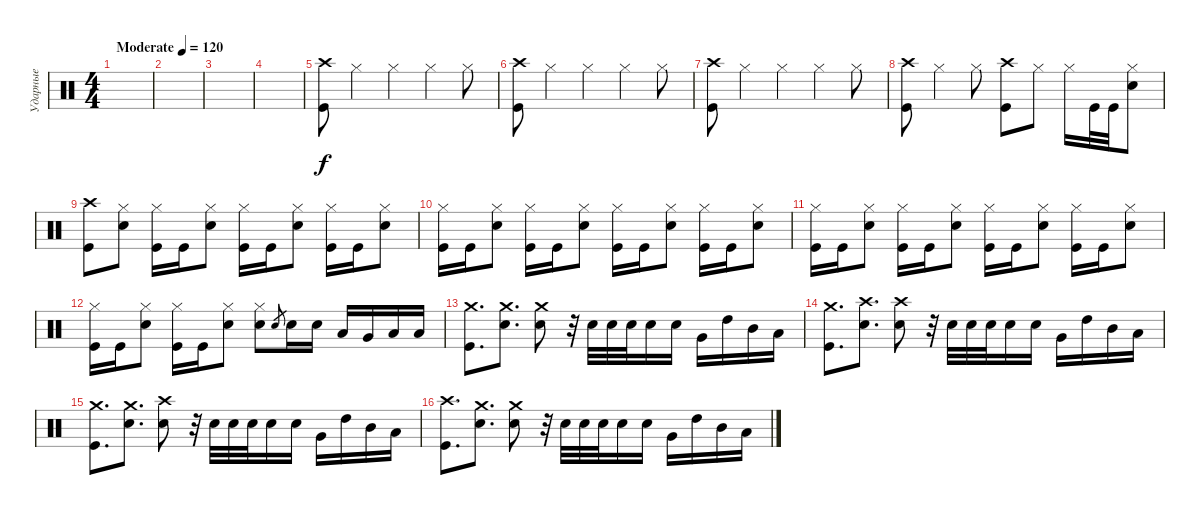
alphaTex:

\track ("Ударные" "Ударные") {instrument percussion}
\staff {score}
\articulation defaults
\ts (4 4)
\tempo (120 "Moderate")
\clef neutral
\ks c
|
|
|
|
("Crash high (hit)" "Kick (hit)").8 "Hi-Hat (closed)".4 "Hi-Hat (closed)".4 "Hi-Hat (closed)".4 "Hi-Hat (closed)".8 |
("Crash high (hit)" "Kick (hit)").8 "Hi-Hat (closed)".4 "Hi-Hat (closed)".4 "Hi-Hat (closed)".4 "Hi-Hat (closed)".8 |
("Crash high (hit)" "Kick (hit)").8 "Hi-Hat (closed)".4 "Hi-Hat (closed)".4 "Hi-Hat (closed)".4 "Hi-Hat (closed)".8 |
("Crash high (hit)" "Kick (hit)").8 "Hi-Hat (closed)".4 "Hi-Hat (closed)".8 ("Crash high (hit)" "Kick (hit)").8 "Hi-Hat (closed)".8 "Hi-Hat (closed)".16 "Kick (hit)".32 "Kick (hit)".32 ("Hi-Hat (closed)" "Snare (hit) 2").8 |
("Crash high (hit)" "Kick (hit)").8 ("Hi-Hat (closed)" "Snare (hit) 2").8 ("Hi-Hat (closed)" "Kick (hit)").16 "Kick (hit)".16 ("Hi-Hat (closed)" "Snare (hit) 2").8 ("Hi-Hat (closed)" "Kick (hit)").16 "Kick (hit)".16 ("Hi-Hat (closed)" "Snare (hit) 2").8 ("Hi-Hat (closed)" "Kick (hit)").16 "Kick (hit)".16 ("Hi-Hat (closed)" "Snare (hit) 2").8 |
("Hi-Hat (closed)" "Kick (hit)").16 "Kick (hit)".16 ("Hi-Hat (closed)" "Snare (hit) 2").8 ("Hi-Hat (closed)" "Kick (hit)").16 "Kick (hit)".16 ("Hi-Hat (closed)" "Snare (hit) 2").8 ("Hi-Hat (closed)" "Kick (hit)").16 "Kick (hit)".16 ("Hi-Hat (closed)" "Snare (hit) 2").8 ("Hi-Hat (closed)" "Kick (hit)").16 "Kick (hit)".16 ("Hi-Hat (closed)" "Snare (hit) 2").8 |
("Hi-Hat (closed)" "Kick (hit)").16 "Kick (hit)".16 ("Hi-Hat (closed)" "Snare (hit) 2").8 ("Hi-Hat (closed)" "Kick (hit)").16 "Kick (hit)".16 ("Hi-Hat (closed)" "Snare (hit) 2").8 ("Hi-Hat (closed)" "Kick (hit)").16 "Kick (hit)".16 ("Hi-Hat (closed)" "Snare (hit) 2").8 ("Hi-Hat (closed)" "Kick (hit)").16 "Kick (hit)".16 ("Hi-Hat (closed)" "Snare (hit) 2").8 |
("Hi-Hat (closed)" "Kick (hit)").16 "Kick (hit)".16 ("Hi-Hat (closed)" "Snare (hit) 2").8 ("Hi-Hat (closed)" "Kick (hit)").16 "Kick (hit)".16 ("Hi-Hat (closed)" "Snare (hit) 2").8 ("Hi-Hat (closed)" "Snare (hit) 2").8 "Snare (hit) 2".8{gr} "Snare (hit) 2".16 "Snare (hit) 2".16 "Low Tom (hit)".16 "Very Low Tom (hit)".16 "Low Tom (hit)".16 "Low Tom (hit)".16 |
("Crash medium (hit)" "Kick (hit)").8{d} ("Crash medium (hit)" "Snare (hit) 2").8{d} ("Crash medium (hit)" "Snare (hit) 2").8 r.32 "Snare (hit) 2".32 "Snare (hit) 2".32 "Snare (hit) 2".32 "Snare (hit) 2".16 "Snare (hit) 2".16 "Very Low Tom (hit)".16 "High Tom (hit)".16 "Mid Tom (hit)".16 "Low Tom (hit)".16 |
("Crash medium (hit)" "Kick (hit)").8{d} ("Crash high (hit)" "Snare (hit) 2").8{d} ("Crash high (hit)" "Snare (hit) 2").8 r.32 "Snare (hit) 2".32 "Snare (hit) 2".32 "Snare (hit) 2".32 "Snare (hit) 2".16 "Snare (hit) 2".16 "Very Low Tom (hit)".16 "High Tom (hit)".16 "Mid Tom (hit)".16 "Low Tom (hit)".16 |
("Crash medium (hit)" "Kick (hit)").8{d} ("Crash medium (hit)" "Snare (hit) 2").8{d} ("Crash high (hit)" "Snare (hit) 2").8 r.32 "Snare (hit) 2".32 "Snare (hit) 2".32 "Snare (hit) 2".32 "Snare (hit) 2".16 "Snare (hit) 2".16 "Very Low Tom (hit)".16 "High Tom (hit)".16 "Mid Tom (hit)".16 "Low Tom (hit)".16 |
("Crash high (hit)" "Kick (hit)").8{d} ("Crash medium (hit)" "Snare (hit) 2").8{d} ("Crash medium (hit)" "Snare (hit) 2").8 r.32 "Snare (hit) 2".32 "Snare (hit) 2".32 "Snare (hit) 2".32 "Snare (hit) 2".16 "Snare (hit) 2".16 "Very Low Tom (hit)".16 "High Tom (hit)".16 "Mid Tom (hit)".16 "Low Tom (hit)".16
